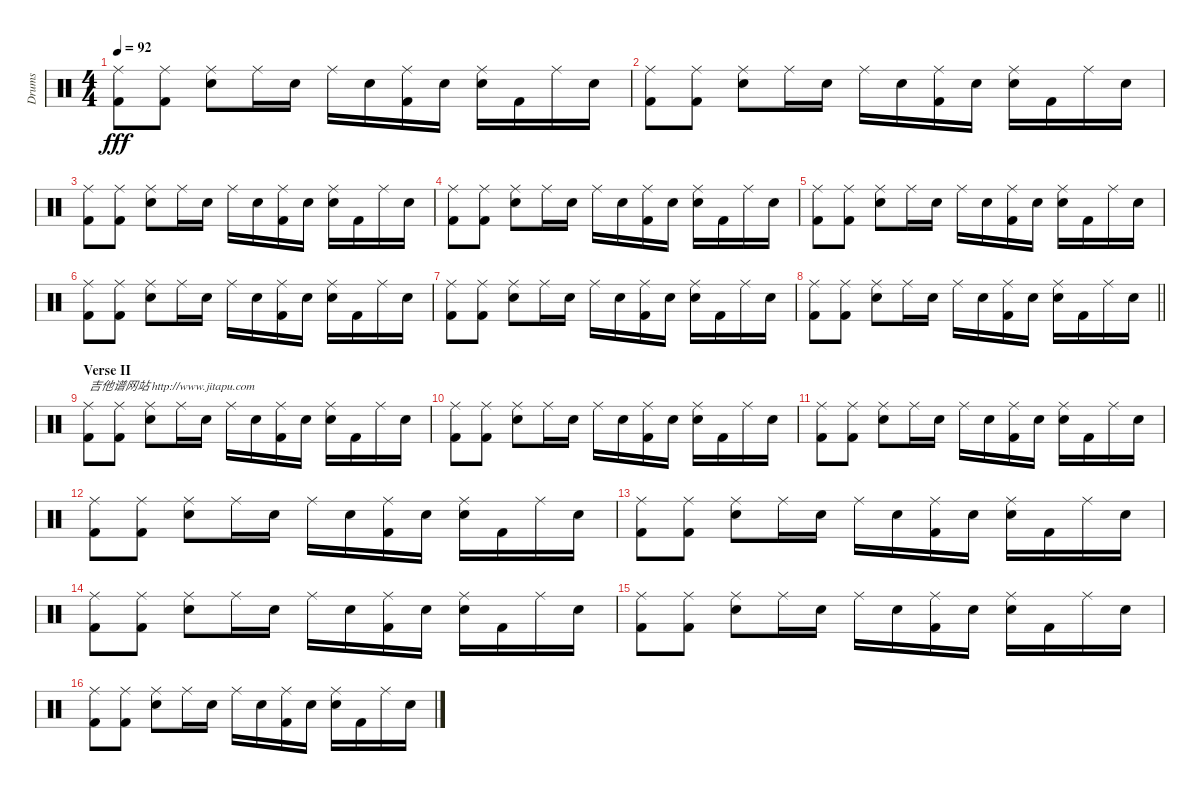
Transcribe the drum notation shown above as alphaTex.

\track ("Drums" "Drums") {instrument percussion}
\staff {score}
\articulation defaults
\ts (4 4)
\tempo 92
\clef neutral
\ks c
("Ride (middle)" "Kick (hit) 2").8{dy fff} ("Ride (middle)" "Kick (hit) 2").8 ("Ride (middle)" "Snare (hit) 2").8 "Ride (middle)".16 "Snare (hit) 2".16 "Ride (middle)".16 "Snare (hit) 2".16 ("Ride (middle)" "Kick (hit) 2").16 "Snare (hit) 2".16 ("Ride (middle)" "Snare (hit) 2").16 "Kick (hit) 2".16 "Ride (middle)".16 "Snare (hit) 2".16 |
("Ride (middle)" "Kick (hit) 2").8 ("Ride (middle)" "Kick (hit) 2").8 ("Ride (middle)" "Snare (hit) 2").8 "Ride (middle)".16 "Snare (hit) 2".16 "Ride (middle)".16 "Snare (hit) 2".16 ("Ride (middle)" "Kick (hit) 2").16 "Snare (hit) 2".16 ("Ride (middle)" "Snare (hit) 2").16 "Kick (hit) 2".16 "Ride (middle)".16 "Snare (hit) 2".16 |
("Ride (middle)" "Kick (hit) 2").8 ("Ride (middle)" "Kick (hit) 2").8 ("Ride (middle)" "Snare (hit) 2").8 "Ride (middle)".16 "Snare (hit) 2".16 "Ride (middle)".16 "Snare (hit) 2".16 ("Ride (middle)" "Kick (hit) 2").16 "Snare (hit) 2".16 ("Ride (middle)" "Snare (hit) 2").16 "Kick (hit) 2".16 "Ride (middle)".16 "Snare (hit) 2".16 |
("Ride (middle)" "Kick (hit) 2").8 ("Ride (middle)" "Kick (hit) 2").8 ("Ride (middle)" "Snare (hit) 2").8 "Ride (middle)".16 "Snare (hit) 2".16 "Ride (middle)".16 "Snare (hit) 2".16 ("Ride (middle)" "Kick (hit) 2").16 "Snare (hit) 2".16 ("Ride (middle)" "Snare (hit) 2").16 "Kick (hit) 2".16 "Ride (middle)".16 "Snare (hit) 2".16 |
("Ride (middle)" "Kick (hit) 2").8 ("Ride (middle)" "Kick (hit) 2").8 ("Ride (middle)" "Snare (hit) 2").8 "Ride (middle)".16 "Snare (hit) 2".16 "Ride (middle)".16 "Snare (hit) 2".16 ("Ride (middle)" "Kick (hit) 2").16 "Snare (hit) 2".16 ("Ride (middle)" "Snare (hit) 2").16 "Kick (hit) 2".16 "Ride (middle)".16 "Snare (hit) 2".16 |
("Ride (middle)" "Kick (hit) 2").8 ("Ride (middle)" "Kick (hit) 2").8 ("Ride (middle)" "Snare (hit) 2").8 "Ride (middle)".16 "Snare (hit) 2".16 "Ride (middle)".16 "Snare (hit) 2".16 ("Ride (middle)" "Kick (hit) 2").16 "Snare (hit) 2".16 ("Ride (middle)" "Snare (hit) 2").16 "Kick (hit) 2".16 "Ride (middle)".16 "Snare (hit) 2".16 |
("Ride (middle)" "Kick (hit) 2").8 ("Ride (middle)" "Kick (hit) 2").8 ("Ride (middle)" "Snare (hit) 2").8 "Ride (middle)".16 "Snare (hit) 2".16 "Ride (middle)".16 "Snare (hit) 2".16 ("Ride (middle)" "Kick (hit) 2").16 "Snare (hit) 2".16 ("Ride (middle)" "Snare (hit) 2").16 "Kick (hit) 2".16 "Ride (middle)".16 "Snare (hit) 2".16 |
\barLineRight lightlight
("Ride (middle)" "Kick (hit) 2").8 ("Ride (middle)" "Kick (hit) 2").8 ("Ride (middle)" "Snare (hit) 2").8 "Ride (middle)".16 "Snare (hit) 2".16 "Ride (middle)".16 "Snare (hit) 2".16 ("Ride (middle)" "Kick (hit) 2").16 "Snare (hit) 2".16 ("Ride (middle)" "Snare (hit) 2").16 "Kick (hit) 2".16 "Ride (middle)".16 "Snare (hit) 2".16 |
\section ("" "Verse II")
("Ride (middle)" "Kick (hit) 2").8{txt "吉他谱网站 http://www.jitapu.com"} ("Ride (middle)" "Kick (hit) 2").8 ("Ride (middle)" "Snare (hit) 2").8 "Ride (middle)".16 "Snare (hit) 2".16 "Ride (middle)".16 "Snare (hit) 2".16 ("Ride (middle)" "Kick (hit) 2").16 "Snare (hit) 2".16 ("Ride (middle)" "Snare (hit) 2").16 "Kick (hit) 2".16 "Ride (middle)".16 "Snare (hit) 2".16 |
("Ride (middle)" "Kick (hit) 2").8 ("Ride (middle)" "Kick (hit) 2").8 ("Ride (middle)" "Snare (hit) 2").8 "Ride (middle)".16 "Snare (hit) 2".16 "Ride (middle)".16 "Snare (hit) 2".16 ("Ride (middle)" "Kick (hit) 2").16 "Snare (hit) 2".16 ("Ride (middle)" "Snare (hit) 2").16 "Kick (hit) 2".16 "Ride (middle)".16 "Snare (hit) 2".16 |
("Ride (middle)" "Kick (hit) 2").8 ("Ride (middle)" "Kick (hit) 2").8 ("Ride (middle)" "Snare (hit) 2").8 "Ride (middle)".16 "Snare (hit) 2".16 "Ride (middle)".16 "Snare (hit) 2".16 ("Ride (middle)" "Kick (hit) 2").16 "Snare (hit) 2".16 ("Ride (middle)" "Snare (hit) 2").16 "Kick (hit) 2".16 "Ride (middle)".16 "Snare (hit) 2".16 |
("Ride (middle)" "Kick (hit) 2").8 ("Ride (middle)" "Kick (hit) 2").8 ("Ride (middle)" "Snare (hit) 2").8 "Ride (middle)".16 "Snare (hit) 2".16 "Ride (middle)".16 "Snare (hit) 2".16 ("Ride (middle)" "Kick (hit) 2").16 "Snare (hit) 2".16 ("Ride (middle)" "Snare (hit) 2").16 "Kick (hit) 2".16 "Ride (middle)".16 "Snare (hit) 2".16 |
("Ride (middle)" "Kick (hit) 2").8 ("Ride (middle)" "Kick (hit) 2").8 ("Ride (middle)" "Snare (hit) 2").8 "Ride (middle)".16 "Snare (hit) 2".16 "Ride (middle)".16 "Snare (hit) 2".16 ("Ride (middle)" "Kick (hit) 2").16 "Snare (hit) 2".16 ("Ride (middle)" "Snare (hit) 2").16 "Kick (hit) 2".16 "Ride (middle)".16 "Snare (hit) 2".16 |
("Ride (middle)" "Kick (hit) 2").8 ("Ride (middle)" "Kick (hit) 2").8 ("Ride (middle)" "Snare (hit) 2").8 "Ride (middle)".16 "Snare (hit) 2".16 "Ride (middle)".16 "Snare (hit) 2".16 ("Ride (middle)" "Kick (hit) 2").16 "Snare (hit) 2".16 ("Ride (middle)" "Snare (hit) 2").16 "Kick (hit) 2".16 "Ride (middle)".16 "Snare (hit) 2".16 |
("Ride (middle)" "Kick (hit) 2").8 ("Ride (middle)" "Kick (hit) 2").8 ("Ride (middle)" "Snare (hit) 2").8 "Ride (middle)".16 "Snare (hit) 2".16 "Ride (middle)".16 "Snare (hit) 2".16 ("Ride (middle)" "Kick (hit) 2").16 "Snare (hit) 2".16 ("Ride (middle)" "Snare (hit) 2").16 "Kick (hit) 2".16 "Ride (middle)".16 "Snare (hit) 2".16 |
("Ride (middle)" "Kick (hit) 2").8 ("Ride (middle)" "Kick (hit) 2").8 ("Ride (middle)" "Snare (hit) 2").8 "Ride (middle)".16 "Snare (hit) 2".16 "Ride (middle)".16 "Snare (hit) 2".16 ("Ride (middle)" "Kick (hit) 2").16 "Snare (hit) 2".16 ("Ride (middle)" "Snare (hit) 2").16 "Kick (hit) 2".16 "Ride (middle)".16 "Snare (hit) 2".16
